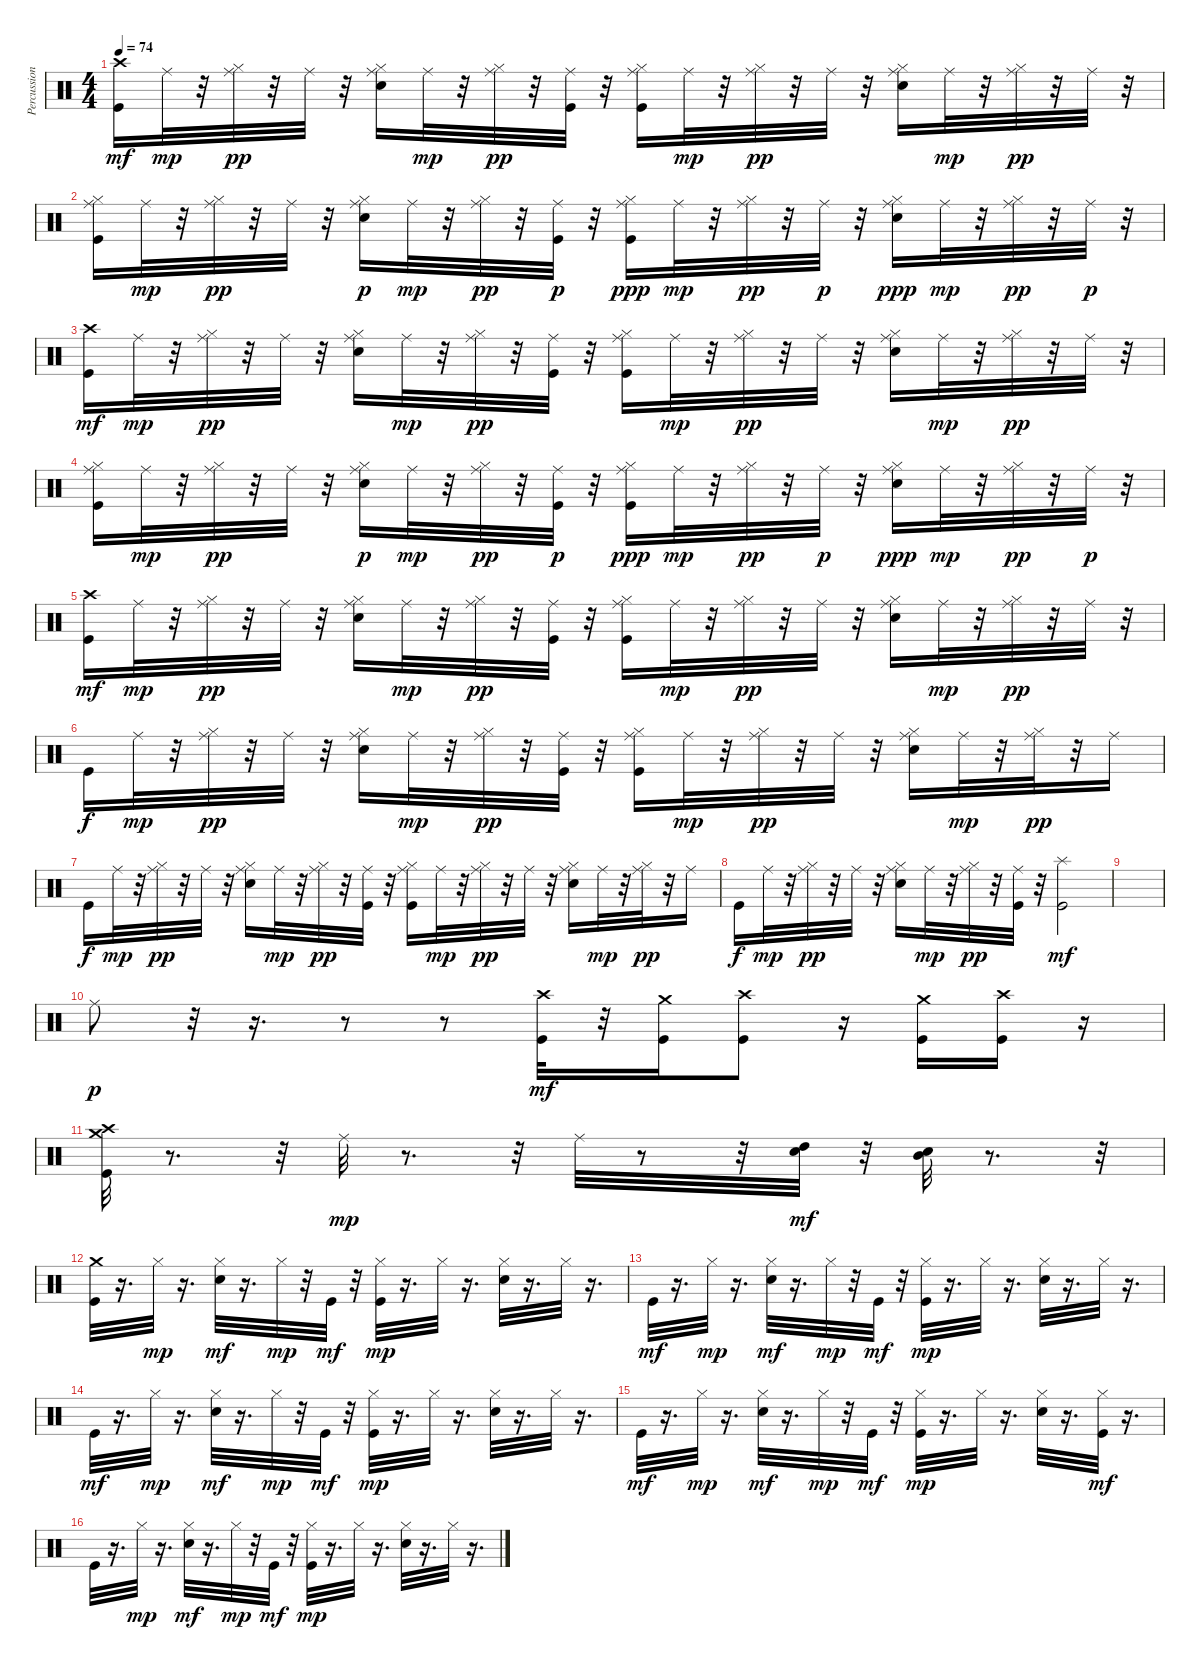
\track ("Percussion" "Percussion") {instrument percussion}
\staff {score}
\articulation defaults
\ts (4 4)
\tempo 74
\clef neutral
\ks c
("Kick (hit)" "Crash high (hit)").16{dy mf} "Ride (middle)".32{dy mp} r.32 ("Hi-Hat (closed)" "Ride (middle)").32{dy pp} r.32 "Ride (middle)".32 r.32 ("Snare (hit) 2" "Hi-Hat (closed)" "Ride (middle)").16 "Ride (middle)".32{dy mp} r.32 ("Hi-Hat (closed)" "Ride (middle)").32{dy pp} r.32 ("Kick (hit)" "Ride (middle)").32 r.32 ("Kick (hit)" "Hi-Hat (closed)" "Ride (middle)").16 "Ride (middle)".32{dy mp} r.32 ("Hi-Hat (closed)" "Ride (middle)").32{dy pp} r.32 "Ride (middle)".32 r.32 ("Snare (hit) 2" "Hi-Hat (closed)" "Ride (middle)").16 "Ride (middle)".32{dy mp} r.32 ("Hi-Hat (closed)" "Ride (middle)").32{dy pp} r.32 "Ride (middle)".32 r.32 |
("Kick (hit)" "Hi-Hat (closed)" "Ride (middle)").16 "Ride (middle)".32{dy mp} r.32 ("Hi-Hat (closed)" "Ride (middle)").32{dy pp} r.32 "Ride (middle)".32 r.32 ("Snare (hit) 2" "Hi-Hat (closed)" "Ride (middle)").16{dy p} "Ride (middle)".32{dy mp} r.32 ("Hi-Hat (closed)" "Ride (middle)").32{dy pp} r.32 ("Kick (hit)" "Ride (middle)").32{dy p} r.32 ("Kick (hit)" "Hi-Hat (closed)" "Ride (middle)").16{dy ppp} "Ride (middle)".32{dy mp} r.32 ("Hi-Hat (closed)" "Ride (middle)").32{dy pp} r.32 "Ride (middle)".32{dy p} r.32 ("Snare (hit) 2" "Hi-Hat (closed)" "Ride (middle)").16{dy ppp} "Ride (middle)".32{dy mp} r.32 ("Hi-Hat (closed)" "Ride (middle)").32{dy pp} r.32 "Ride (middle)".32{dy p} r.32 |
("Kick (hit)" "Crash high (hit)").16{dy mf} "Ride (middle)".32{dy mp} r.32 ("Hi-Hat (closed)" "Ride (middle)").32{dy pp} r.32 "Ride (middle)".32 r.32 ("Snare (hit) 2" "Hi-Hat (closed)" "Ride (middle)").16 "Ride (middle)".32{dy mp} r.32 ("Hi-Hat (closed)" "Ride (middle)").32{dy pp} r.32 ("Kick (hit)" "Ride (middle)").32 r.32 ("Kick (hit)" "Hi-Hat (closed)" "Ride (middle)").16 "Ride (middle)".32{dy mp} r.32 ("Hi-Hat (closed)" "Ride (middle)").32{dy pp} r.32 "Ride (middle)".32 r.32 ("Snare (hit) 2" "Hi-Hat (closed)" "Ride (middle)").16 "Ride (middle)".32{dy mp} r.32 ("Hi-Hat (closed)" "Ride (middle)").32{dy pp} r.32 "Ride (middle)".32 r.32 |
("Kick (hit)" "Hi-Hat (closed)" "Ride (middle)").16 "Ride (middle)".32{dy mp} r.32 ("Hi-Hat (closed)" "Ride (middle)").32{dy pp} r.32 "Ride (middle)".32 r.32 ("Snare (hit) 2" "Hi-Hat (closed)" "Ride (middle)").16{dy p} "Ride (middle)".32{dy mp} r.32 ("Hi-Hat (closed)" "Ride (middle)").32{dy pp} r.32 ("Kick (hit)" "Ride (middle)").32{dy p} r.32 ("Kick (hit)" "Hi-Hat (closed)" "Ride (middle)").16{dy ppp} "Ride (middle)".32{dy mp} r.32 ("Hi-Hat (closed)" "Ride (middle)").32{dy pp} r.32 "Ride (middle)".32{dy p} r.32 ("Snare (hit) 2" "Hi-Hat (closed)" "Ride (middle)").16{dy ppp} "Ride (middle)".32{dy mp} r.32 ("Hi-Hat (closed)" "Ride (middle)").32{dy pp} r.32 "Ride (middle)".32{dy p} r.32 |
("Kick (hit)" "Crash high (hit)").16{dy mf} "Ride (middle)".32{dy mp} r.32 ("Hi-Hat (closed)" "Ride (middle)").32{dy pp} r.32 "Ride (middle)".32 r.32 ("Snare (hit) 2" "Hi-Hat (closed)" "Ride (middle)").16 "Ride (middle)".32{dy mp} r.32 ("Hi-Hat (closed)" "Ride (middle)").32{dy pp} r.32 ("Kick (hit)" "Ride (middle)").32 r.32 ("Kick (hit)" "Hi-Hat (closed)" "Ride (middle)").16 "Ride (middle)".32{dy mp} r.32 ("Hi-Hat (closed)" "Ride (middle)").32{dy pp} r.32 "Ride (middle)".32 r.32 ("Snare (hit) 2" "Hi-Hat (closed)" "Ride (middle)").16 "Ride (middle)".32{dy mp} r.32 ("Hi-Hat (closed)" "Ride (middle)").32{dy pp} r.32 "Ride (middle)".32 r.32 |
"Kick (hit)".16{dy f} "Ride (middle)".32{dy mp} r.32 ("Hi-Hat (closed)" "Ride (middle)").32{dy pp} r.32 "Ride (middle)".32 r.32 ("Snare (hit) 2" "Hi-Hat (closed)" "Ride (middle)").16 "Ride (middle)".32{dy mp} r.32 ("Hi-Hat (closed)" "Ride (middle)").32{dy pp} r.32 ("Kick (hit)" "Ride (middle)").32 r.32 ("Kick (hit)" "Hi-Hat (closed)" "Ride (middle)").16 "Ride (middle)".32{dy mp} r.32 ("Hi-Hat (closed)" "Ride (middle)").32{dy pp} r.32 "Ride (middle)".32 r.32 ("Snare (hit) 2" "Hi-Hat (closed)" "Ride (middle)").16 "Ride (middle)".32{dy mp} r.32 ("Hi-Hat (closed)" "Ride (middle)").32{dy pp} r.32 "Ride (middle)".16 |
"Kick (hit)".16{dy f} "Ride (middle)".32{dy mp} r.32 ("Hi-Hat (closed)" "Ride (middle)").32{dy pp} r.32 "Ride (middle)".32 r.32 ("Snare (hit) 2" "Hi-Hat (closed)" "Ride (middle)").16 "Ride (middle)".32{dy mp} r.32 ("Hi-Hat (closed)" "Ride (middle)").32{dy pp} r.32 ("Kick (hit)" "Ride (middle)").32 r.32 ("Kick (hit)" "Hi-Hat (closed)" "Ride (middle)").16 "Ride (middle)".32{dy mp} r.32 ("Hi-Hat (closed)" "Ride (middle)").32{dy pp} r.32 "Ride (middle)".32 r.32 ("Snare (hit) 2" "Hi-Hat (closed)" "Ride (middle)").16 "Ride (middle)".32{dy mp} r.32 ("Hi-Hat (closed)" "Ride (middle)").32{dy pp} r.32 "Ride (middle)".16 |
"Kick (hit)".16{dy f} "Ride (middle)".32{dy mp} r.32 ("Hi-Hat (closed)" "Ride (middle)").32{dy pp} r.32 "Ride (middle)".32 r.32 ("Snare (hit) 2" "Hi-Hat (closed)" "Ride (middle)").16 "Ride (middle)".32{dy mp} r.32 ("Hi-Hat (closed)" "Ride (middle)").32{dy pp} r.32 ("Kick (hit)" "Ride (middle)").32 r.32 ("Kick (hit)" "Splash (hit)").2{dy mf} |
|
"Ride (middle)".8{dy p} r.32 r.16{d} r.8 r.8 ("Kick (hit)" "Crash high (hit)").32{dy mf} r.32 ("Kick (hit)" "Crash medium (hit)").16 ("Kick (hit)" "Crash high (hit)").8 r.16 ("Kick (hit)" "Crash medium (hit)").16 ("Kick (hit)" "Crash high (hit)").16 r.16 |
("Kick (hit)" "Crash high (hit)" "Crash medium (hit)").32 r.8{d} r.32 "Ride (middle)".32{dy mp} r.8{d} r.32 "Ride (middle)".32 r.8 r.32 ("High Tom (hit)" "Snare (hit) 2").32{dy mf} r.32 ("Mid Tom (hit)" "Snare (hit) 2").32 r.8{d} r.32 |
("Kick (hit)" "Crash medium (hit)").32 r.16{d} "Hi-Hat (closed)".32{dy mp} r.16{d} ("Snare (hit) 2" "Hi-Hat (closed)").32{dy mf} r.16{d} "Hi-Hat (closed)".32{dy mp} r.32 "Kick (hit)".32{dy mf} r.32 ("Kick (hit)" "Hi-Hat (closed)").32{dy mp} r.16{d} "Hi-Hat (closed)".32 r.16{d} ("Snare (hit) 2" "Hi-Hat (closed)").32 r.16{d} "Hi-Hat (closed)".32 r.16{d} |
"Kick (hit)".32{dy mf} r.16{d} "Hi-Hat (closed)".32{dy mp} r.16{d} ("Snare (hit) 2" "Hi-Hat (closed)").32{dy mf} r.16{d} "Hi-Hat (closed)".32{dy mp} r.32 "Kick (hit)".32{dy mf} r.32 ("Kick (hit)" "Hi-Hat (closed)").32{dy mp} r.16{d} "Hi-Hat (closed)".32 r.16{d} ("Snare (hit) 2" "Hi-Hat (closed)").32 r.16{d} "Hi-Hat (closed)".32 r.16{d} |
"Kick (hit)".32{dy mf} r.16{d} "Hi-Hat (closed)".32{dy mp} r.16{d} ("Snare (hit) 2" "Hi-Hat (closed)").32{dy mf} r.16{d} "Hi-Hat (closed)".32{dy mp} r.32 "Kick (hit)".32{dy mf} r.32 ("Kick (hit)" "Hi-Hat (closed)").32{dy mp} r.16{d} "Hi-Hat (closed)".32 r.16{d} ("Snare (hit) 2" "Hi-Hat (closed)").32 r.16{d} "Hi-Hat (closed)".32 r.16{d} |
"Kick (hit)".32{dy mf} r.16{d} "Hi-Hat (closed)".32{dy mp} r.16{d} ("Snare (hit) 2" "Hi-Hat (closed)").32{dy mf} r.16{d} "Hi-Hat (closed)".32{dy mp} r.32 "Kick (hit)".32{dy mf} r.32 ("Kick (hit)" "Hi-Hat (closed)").32{dy mp} r.16{d} "Hi-Hat (closed)".32 r.16{d} ("Snare (hit) 2" "Hi-Hat (closed)").32 r.16{d} ("Hi-Hat (closed)" "Kick (hit)").32{dy mf} r.16{d} |
"Kick (hit)".32 r.16{d} "Hi-Hat (closed)".32{dy mp} r.16{d} ("Snare (hit) 2" "Hi-Hat (closed)").32{dy mf} r.16{d} "Hi-Hat (closed)".32{dy mp} r.32 "Kick (hit)".32{dy mf} r.32 ("Kick (hit)" "Hi-Hat (closed)").32{dy mp} r.16{d} "Hi-Hat (closed)".32 r.16{d} ("Snare (hit) 2" "Hi-Hat (closed)").32 r.16{d} "Hi-Hat (closed)".32 r.16{d}
